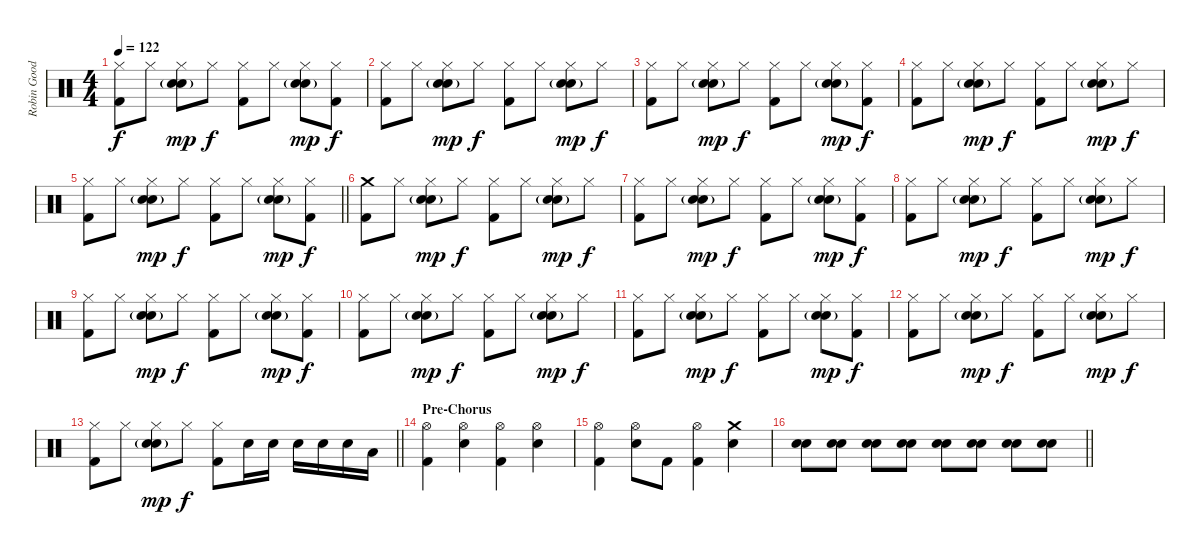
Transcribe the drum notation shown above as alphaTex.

\track ("Robin Goodridge: Drums" "Robin Good") {instrument percussion}
\staff {score}
\articulation defaults
\ts (4 4)
\tempo 122
\clef neutral
\ks c
("Hi-Hat (closed)" "Kick (hit) 2").8{dy f} "Hi-Hat (closed)".8 ("Hi-Hat (closed)" "Electric Snare (hit)" "Hand Clap (hit)"{g}).8{dy mp} "Hi-Hat (closed)".8{dy f} ("Hi-Hat (closed)" "Kick (hit) 2").8 "Hi-Hat (closed)".8 ("Hi-Hat (closed)" "Electric Snare (hit)" "Hand Clap (hit)"{g}).8{dy mp} ("Hi-Hat (closed)" "Kick (hit) 2").8{dy f} |
("Hi-Hat (closed)" "Kick (hit) 2").8 "Hi-Hat (closed)".8 ("Hi-Hat (closed)" "Electric Snare (hit)" "Hand Clap (hit)"{g}).8{dy mp} "Hi-Hat (closed)".8{dy f} ("Hi-Hat (closed)" "Kick (hit) 2").8 "Hi-Hat (closed)".8 ("Hi-Hat (closed)" "Electric Snare (hit)" "Hand Clap (hit)"{g}).8{dy mp} "Hi-Hat (closed)".8{dy f} |
("Hi-Hat (closed)" "Kick (hit) 2").8 "Hi-Hat (closed)".8 ("Hi-Hat (closed)" "Electric Snare (hit)" "Hand Clap (hit)"{g}).8{dy mp} "Hi-Hat (closed)".8{dy f} ("Hi-Hat (closed)" "Kick (hit) 2").8 "Hi-Hat (closed)".8 ("Hi-Hat (closed)" "Electric Snare (hit)" "Hand Clap (hit)"{g}).8{dy mp} ("Hi-Hat (closed)" "Kick (hit) 2").8{dy f} |
("Hi-Hat (closed)" "Kick (hit) 2").8 "Hi-Hat (closed)".8 ("Hi-Hat (closed)" "Electric Snare (hit)" "Hand Clap (hit)"{g}).8{dy mp} "Hi-Hat (closed)".8{dy f} ("Hi-Hat (closed)" "Kick (hit) 2").8 "Hi-Hat (closed)".8 ("Hi-Hat (closed)" "Electric Snare (hit)" "Hand Clap (hit)"{g}).8{dy mp} "Hi-Hat (closed)".8{dy f} |
\barLineRight lightlight
("Hi-Hat (closed)" "Kick (hit) 2").8 "Hi-Hat (closed)".8 ("Hi-Hat (closed)" "Electric Snare (hit)" "Hand Clap (hit)"{g}).8{dy mp} "Hi-Hat (closed)".8{dy f} ("Hi-Hat (closed)" "Kick (hit) 2").8 "Hi-Hat (closed)".8 ("Hi-Hat (closed)" "Electric Snare (hit)" "Hand Clap (hit)"{g}).8{dy mp} ("Hi-Hat (closed)" "Kick (hit) 2").8{dy f} |
("Crash medium (hit)" "Kick (hit) 2").8 "Hi-Hat (closed)".8 ("Hi-Hat (closed)" "Electric Snare (hit)" "Hand Clap (hit)"{g}).8{dy mp} "Hi-Hat (closed)".8{dy f} ("Hi-Hat (closed)" "Kick (hit) 2").8 "Hi-Hat (closed)".8 ("Hi-Hat (closed)" "Electric Snare (hit)" "Hand Clap (hit)"{g}).8{dy mp} "Hi-Hat (closed)".8{dy f} |
("Hi-Hat (closed)" "Kick (hit) 2").8 "Hi-Hat (closed)".8 ("Hi-Hat (closed)" "Electric Snare (hit)" "Hand Clap (hit)"{g}).8{dy mp} "Hi-Hat (closed)".8{dy f} ("Hi-Hat (closed)" "Kick (hit) 2").8 "Hi-Hat (closed)".8 ("Hi-Hat (closed)" "Electric Snare (hit)" "Hand Clap (hit)"{g}).8{dy mp} ("Hi-Hat (closed)" "Kick (hit) 2").8{dy f} |
("Hi-Hat (closed)" "Kick (hit) 2").8 "Hi-Hat (closed)".8 ("Hi-Hat (closed)" "Electric Snare (hit)" "Hand Clap (hit)"{g}).8{dy mp} "Hi-Hat (closed)".8{dy f} ("Hi-Hat (closed)" "Kick (hit) 2").8 "Hi-Hat (closed)".8 ("Hi-Hat (closed)" "Electric Snare (hit)" "Hand Clap (hit)"{g}).8{dy mp} "Hi-Hat (closed)".8{dy f} |
("Hi-Hat (closed)" "Kick (hit) 2").8 "Hi-Hat (closed)".8 ("Hi-Hat (closed)" "Electric Snare (hit)" "Hand Clap (hit)"{g}).8{dy mp} "Hi-Hat (closed)".8{dy f} ("Hi-Hat (closed)" "Kick (hit) 2").8 "Hi-Hat (closed)".8 ("Hi-Hat (closed)" "Electric Snare (hit)" "Hand Clap (hit)"{g}).8{dy mp} ("Hi-Hat (closed)" "Kick (hit) 2").8{dy f} |
("Hi-Hat (closed)" "Kick (hit) 2").8 "Hi-Hat (closed)".8 ("Hi-Hat (closed)" "Electric Snare (hit)" "Hand Clap (hit)"{g}).8{dy mp} "Hi-Hat (closed)".8{dy f} ("Hi-Hat (closed)" "Kick (hit) 2").8 "Hi-Hat (closed)".8 ("Hi-Hat (closed)" "Electric Snare (hit)" "Hand Clap (hit)"{g}).8{dy mp} "Hi-Hat (closed)".8{dy f} |
("Hi-Hat (closed)" "Kick (hit) 2").8 "Hi-Hat (closed)".8 ("Hi-Hat (closed)" "Electric Snare (hit)" "Hand Clap (hit)"{g}).8{dy mp} "Hi-Hat (closed)".8{dy f} ("Hi-Hat (closed)" "Kick (hit) 2").8 "Hi-Hat (closed)".8 ("Hi-Hat (closed)" "Electric Snare (hit)" "Hand Clap (hit)"{g}).8{dy mp} ("Hi-Hat (closed)" "Kick (hit) 2").8{dy f} |
("Hi-Hat (closed)" "Kick (hit) 2").8 "Hi-Hat (closed)".8 ("Hi-Hat (closed)" "Electric Snare (hit)" "Hand Clap (hit)"{g}).8{dy mp} "Hi-Hat (closed)".8{dy f} ("Hi-Hat (closed)" "Kick (hit) 2").8 "Hi-Hat (closed)".8 ("Hi-Hat (closed)" "Electric Snare (hit)" "Hand Clap (hit)"{g}).8{dy mp} "Hi-Hat (closed)".8{dy f} |
\barLineRight lightlight
("Hi-Hat (closed)" "Kick (hit) 2").8 "Hi-Hat (closed)".8 ("Hi-Hat (closed)" "Electric Snare (hit)" "Hand Clap (hit)"{g}).8{dy mp} "Hi-Hat (closed)".8{dy f} ("Hi-Hat (closed)" "Kick (hit) 2").8 "Electric Snare (hit)".16 "Electric Snare (hit)".16 "Electric Snare (hit)".16 "Electric Snare (hit)".16 "Electric Snare (hit)".16 "Low Tom (hit)".16 |
\section ("" "Pre-Chorus")
("Hi-Hat (open)" "Kick (hit) 2").4 ("Hi-Hat (open)" "Electric Snare (hit)").4 ("Hi-Hat (open)" "Kick (hit) 2").4 ("Hi-Hat (open)" "Electric Snare (hit)").4 |
("Hi-Hat (open)" "Kick (hit) 2").4 ("Hi-Hat (open)" "Electric Snare (hit)").8 "Kick (hit) 2".8 ("Hi-Hat (open)" "Kick (hit) 2").4 ("Crash medium (hit)" "Electric Snare (hit)").4 |
\barLineRight lightlight
("Electric Snare (hit)" "Electric Snare (hit)").8 ("Electric Snare (hit)" "Electric Snare (hit)").8 ("Electric Snare (hit)" "Electric Snare (hit)").8 ("Electric Snare (hit)" "Electric Snare (hit)").8 ("Electric Snare (hit)" "Electric Snare (hit)").8 ("Electric Snare (hit)" "Electric Snare (hit)").8 ("Electric Snare (hit)" "Electric Snare (hit)").8 ("Electric Snare (hit)" "Electric Snare (hit)").8
